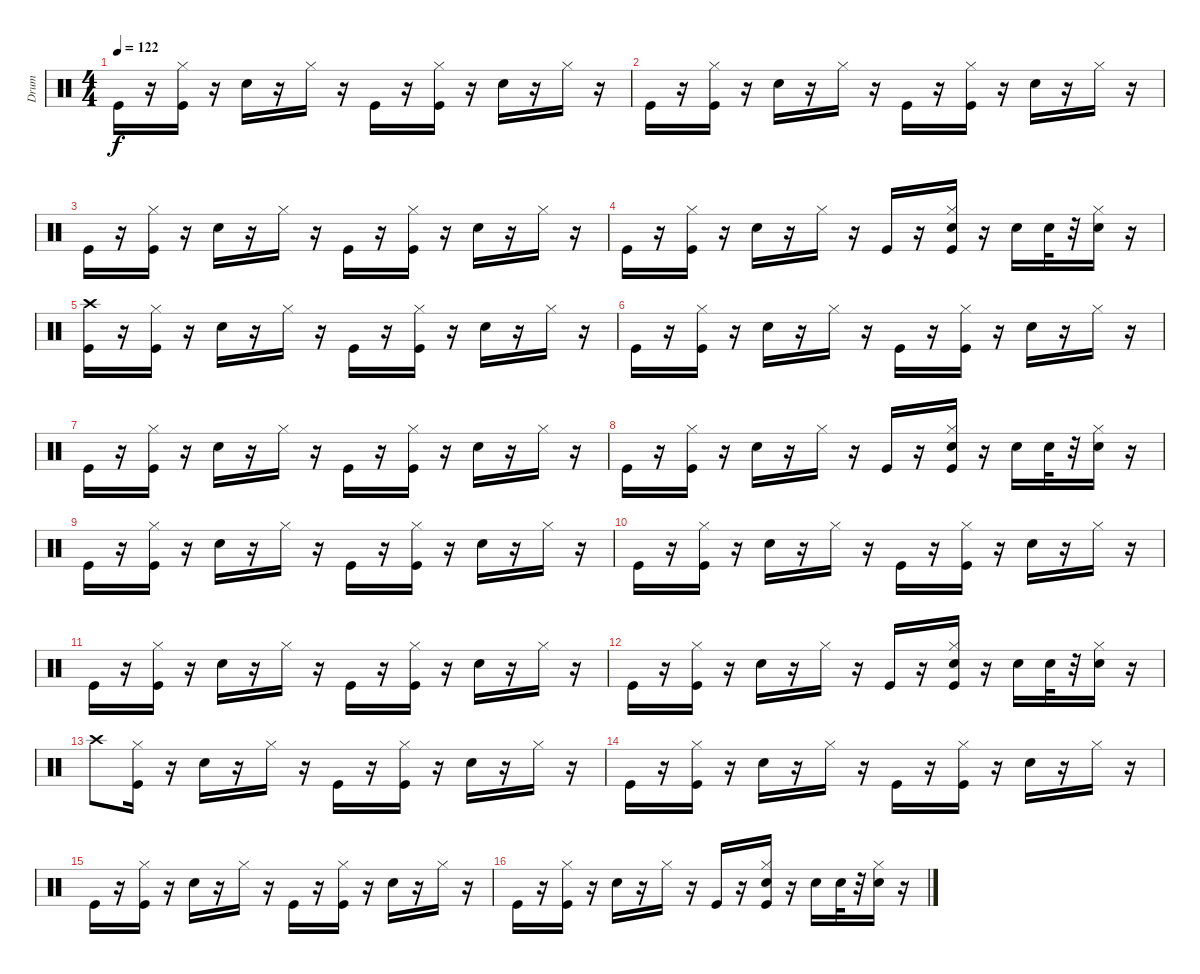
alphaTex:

\track ("Drum" "Drum") {instrument percussion}
\staff {score}
\articulation defaults
\ts (4 4)
\tempo 122
\clef neutral
\ks c "Kick (hit)".16{dy f}
r.16 ("Kick (hit)" "Hi-Hat (closed)").16 r.16 "Snare (hit) 2".16 r.16 "Hi-Hat (closed)".16 r.16 "Kick (hit)".16 r.16 ("Kick (hit)" "Hi-Hat (closed)").16 r.16 "Snare (hit) 2".16 r.16 "Hi-Hat (closed)".16 r.16 |
"Kick (hit)".16 r.16 ("Kick (hit)" "Hi-Hat (closed)").16 r.16 "Snare (hit) 2".16 r.16 "Hi-Hat (closed)".16 r.16 "Kick (hit)".16 r.16 ("Kick (hit)" "Hi-Hat (closed)").16 r.16 "Snare (hit) 2".16 r.16 "Hi-Hat (closed)".16 r.16 |
"Kick (hit)".16 r.16 ("Kick (hit)" "Hi-Hat (closed)").16 r.16 "Snare (hit) 2".16 r.16 "Hi-Hat (closed)".16 r.16 "Kick (hit)".16 r.16 ("Kick (hit)" "Hi-Hat (closed)").16 r.16 "Snare (hit) 2".16 r.16 "Hi-Hat (closed)".16 r.16 |
"Kick (hit)".16 r.16 ("Kick (hit)" "Hi-Hat (closed)").16 r.16 "Snare (hit) 2".16 r.16 "Hi-Hat (closed)".16 r.16 "Kick (hit)".16 r.16 ("Snare (hit) 2" "Kick (hit)" "Hi-Hat (closed)").16 r.16 "Snare (hit) 2".16 "Snare (hit) 2".32 r.32 ("Snare (hit) 2" "Hi-Hat (closed)").16 r.16 |
("Kick (hit)" "Crash high (hit)").16 r.16 ("Kick (hit)" "Hi-Hat (closed)").16 r.16 "Snare (hit) 2".16 r.16 "Hi-Hat (closed)".16 r.16 "Kick (hit)".16 r.16 ("Kick (hit)" "Hi-Hat (closed)").16 r.16 "Snare (hit) 2".16 r.16 "Hi-Hat (closed)".16 r.16 |
"Kick (hit)".16 r.16 ("Kick (hit)" "Hi-Hat (closed)").16 r.16 "Snare (hit) 2".16 r.16 "Hi-Hat (closed)".16 r.16 "Kick (hit)".16 r.16 ("Kick (hit)" "Hi-Hat (closed)").16 r.16 "Snare (hit) 2".16 r.16 "Hi-Hat (closed)".16 r.16 |
"Kick (hit)".16 r.16 ("Kick (hit)" "Hi-Hat (closed)").16 r.16 "Snare (hit) 2".16 r.16 "Hi-Hat (closed)".16 r.16 "Kick (hit)".16 r.16 ("Kick (hit)" "Hi-Hat (closed)").16 r.16 "Snare (hit) 2".16 r.16 "Hi-Hat (closed)".16 r.16 |
"Kick (hit)".16 r.16 ("Kick (hit)" "Hi-Hat (closed)").16 r.16 "Snare (hit) 2".16 r.16 "Hi-Hat (closed)".16 r.16 "Kick (hit)".16 r.16 ("Snare (hit) 2" "Kick (hit)" "Hi-Hat (closed)").16 r.16 "Snare (hit) 2".16 "Snare (hit) 2".32 r.32 ("Snare (hit) 2" "Hi-Hat (closed)").16 r.16 |
"Kick (hit)".16 r.16 ("Kick (hit)" "Hi-Hat (closed)").16 r.16 "Snare (hit) 2".16 r.16 "Hi-Hat (closed)".16 r.16 "Kick (hit)".16 r.16 ("Kick (hit)" "Hi-Hat (closed)").16 r.16 "Snare (hit) 2".16 r.16 "Hi-Hat (closed)".16 r.16 |
"Kick (hit)".16 r.16 ("Kick (hit)" "Hi-Hat (closed)").16 r.16 "Snare (hit) 2".16 r.16 "Hi-Hat (closed)".16 r.16 "Kick (hit)".16 r.16 ("Kick (hit)" "Hi-Hat (closed)").16 r.16 "Snare (hit) 2".16 r.16 "Hi-Hat (closed)".16 r.16 |
"Kick (hit)".16 r.16 ("Kick (hit)" "Hi-Hat (closed)").16 r.16 "Snare (hit) 2".16 r.16 "Hi-Hat (closed)".16 r.16 "Kick (hit)".16 r.16 ("Kick (hit)" "Hi-Hat (closed)").16 r.16 "Snare (hit) 2".16 r.16 "Hi-Hat (closed)".16 r.16 |
"Kick (hit)".16 r.16 ("Kick (hit)" "Hi-Hat (closed)").16 r.16 "Snare (hit) 2".16 r.16 "Hi-Hat (closed)".16 r.16 "Kick (hit)".16 r.16 ("Snare (hit) 2" "Kick (hit)" "Hi-Hat (closed)").16 r.16 "Snare (hit) 2".16 "Snare (hit) 2".32 r.32 ("Snare (hit) 2" "Hi-Hat (closed)").16 r.16 |
"Crash high (hit)".8 ("Kick (hit)" "Hi-Hat (closed)").16 r.16 "Snare (hit) 2".16 r.16 "Hi-Hat (closed)".16 r.16 "Kick (hit)".16 r.16 ("Kick (hit)" "Hi-Hat (closed)").16 r.16 "Snare (hit) 2".16 r.16 "Hi-Hat (closed)".16 r.16 |
"Kick (hit)".16 r.16 ("Kick (hit)" "Hi-Hat (closed)").16 r.16 "Snare (hit) 2".16 r.16 "Hi-Hat (closed)".16 r.16 "Kick (hit)".16 r.16 ("Kick (hit)" "Hi-Hat (closed)").16 r.16 "Snare (hit) 2".16 r.16 "Hi-Hat (closed)".16 r.16 |
"Kick (hit)".16 r.16 ("Kick (hit)" "Hi-Hat (closed)").16 r.16 "Snare (hit) 2".16 r.16 "Hi-Hat (closed)".16 r.16 "Kick (hit)".16 r.16 ("Kick (hit)" "Hi-Hat (closed)").16 r.16 "Snare (hit) 2".16 r.16 "Hi-Hat (closed)".16 r.16 |
"Kick (hit)".16 r.16 ("Kick (hit)" "Hi-Hat (closed)").16 r.16 "Snare (hit) 2".16 r.16 "Hi-Hat (closed)".16 r.16 "Kick (hit)".16 r.16 ("Snare (hit) 2" "Kick (hit)" "Hi-Hat (closed)").16 r.16 "Snare (hit) 2".16 "Snare (hit) 2".32 r.32 ("Snare (hit) 2" "Hi-Hat (closed)").16 r.16
